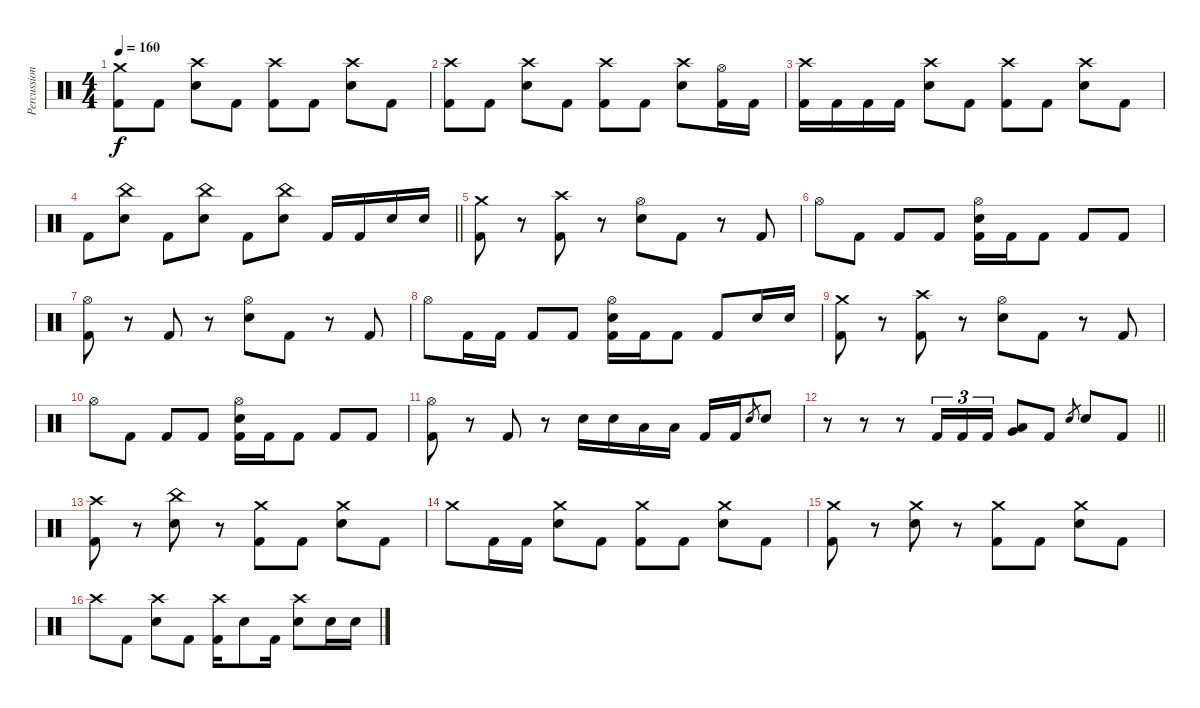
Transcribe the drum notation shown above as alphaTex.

\track ("Percussion" "Percussion") {instrument percussion}
\staff {score}
\articulation defaults
\ts (4 4)
\tempo 160
\clef neutral
\ks c
("Crash medium (hit)" "Kick (hit) 2").8{dy f} "Kick (hit) 2".8 ("Crash high (hit)" "Snare (hit) 2").8 "Kick (hit) 2".8 ("Crash high (hit)" "Kick (hit) 2").8 "Kick (hit) 2".8 ("Crash high (hit)" "Snare (hit) 2").8 "Kick (hit) 2".8 |
("Crash high (hit)" "Kick (hit) 2").8 "Kick (hit) 2".8 ("Crash high (hit)" "Snare (hit) 2").8 "Kick (hit) 2".8 ("Crash high (hit)" "Kick (hit) 2").8 "Kick (hit) 2".8 ("Crash high (hit)" "Snare (hit) 2").8 ("Hi-Hat (open)" "Kick (hit) 2").16 "Kick (hit) 2".16 |
("Crash high (hit)" "Kick (hit) 2").16 "Kick (hit) 2".16 "Kick (hit) 2".16 "Kick (hit) 2".16 ("Crash high (hit)" "Snare (hit) 2").8 "Kick (hit) 2".8 ("Crash high (hit)" "Kick (hit) 2").8 "Kick (hit) 2".8 ("Crash high (hit)" "Snare (hit) 2").8 "Kick (hit) 2".8 |
\barLineRight lightlight "Kick (hit) 2".8
("China (hit)" "Snare (hit) 2").8 "Kick (hit) 2".8 ("China (hit)" "Snare (hit) 2").8 "Kick (hit) 2".8 ("China (hit)" "Snare (hit) 2").8 "Kick (hit) 2".16 "Kick (hit) 2".16 "Snare (hit) 2".16 "Snare (hit) 2".16 |
\section ("" "")
("Crash medium (hit)" "Kick (hit) 2").8 r.8 ("Crash high (hit)" "Kick (hit) 2").8 r.8 ("Hi-Hat (open)" "Snare (hit) 2").8 "Kick (hit) 2".8 r.8 "Kick (hit) 2".8 |
"Hi-Hat (open)".8 "Kick (hit) 2".8 "Kick (hit) 2".8 "Kick (hit) 2".8 ("Hi-Hat (open)" "Snare (hit) 2" "Kick (hit) 2").16 "Kick (hit) 2".16 "Kick (hit) 2".8 "Kick (hit) 2".8 "Kick (hit) 2".8 |
("Hi-Hat (open)" "Kick (hit) 2").8 r.8 "Kick (hit) 2".8 r.8 ("Hi-Hat (open)" "Snare (hit) 2").8 "Kick (hit) 2".8 r.8 "Kick (hit) 2".8 |
"Hi-Hat (open)".8 "Kick (hit) 2".16 "Kick (hit) 2".16 "Kick (hit) 2".8 "Kick (hit) 2".8 ("Hi-Hat (open)" "Snare (hit) 2" "Kick (hit) 2").16 "Kick (hit) 2".16 "Kick (hit) 2".8 "Kick (hit) 2".8 "Snare (hit) 2".16 "Snare (hit) 2".16 |
("Crash medium (hit)" "Kick (hit) 2").8 r.8 ("Crash high (hit)" "Kick (hit) 2").8 r.8 ("Hi-Hat (open)" "Snare (hit) 2").8 "Kick (hit) 2".8 r.8 "Kick (hit) 2".8 |
"Hi-Hat (open)".8 "Kick (hit) 2".8 "Kick (hit) 2".8 "Kick (hit) 2".8 ("Hi-Hat (open)" "Snare (hit) 2" "Kick (hit) 2").16 "Kick (hit) 2".16 "Kick (hit) 2".8 "Kick (hit) 2".8 "Kick (hit) 2".8 |
("Hi-Hat (open)" "Kick (hit) 2").8 r.8 "Kick (hit) 2".8 r.8 "Snare (hit) 2".16 "Snare (hit) 2".16 "Low Tom (hit)".16 "Low Tom (hit)".16 "Kick (hit) 2".16 "Kick (hit) 2".16 "Snare (hit) 2".8{gr} "Snare (hit) 2".8 |
\barLineRight lightlight
r.8 r.8 r.8 "Kick (hit) 2".16{tu (3 2)} "Kick (hit) 2".16{tu (3 2)} "Kick (hit) 2".16{tu (3 2)} ("Low Tom (hit)" "Very Low Tom (hit)").8 "Kick (hit) 2".8 "Snare (hit) 2".8{gr} "Snare (hit) 2".8 "Kick (hit) 2".8 |
\section ("" "")
("Crash high (hit)" "Kick (hit) 2").8 r.8 ("China (hit)" "Snare (hit) 2").8 r.8 ("Crash medium (hit)" "Kick (hit) 2").8 "Kick (hit) 2".8 ("Crash medium (hit)" "Snare (hit) 2").8 "Kick (hit) 2".8 |
"Crash medium (hit)".8 "Kick (hit) 2".16 "Kick (hit) 2".16 ("Crash medium (hit)" "Snare (hit) 2").8 "Kick (hit) 2".8 ("Crash medium (hit)" "Kick (hit) 2").8 "Kick (hit) 2".8 ("Crash medium (hit)" "Snare (hit) 2").8 "Kick (hit) 2".8 |
("Crash medium (hit)" "Kick (hit) 2").8 r.8 ("Crash medium (hit)" "Snare (hit) 2").8 r.8 ("Crash medium (hit)" "Kick (hit) 2").8 "Kick (hit) 2".8 ("Crash medium (hit)" "Snare (hit) 2").8 "Kick (hit) 2".8 |
"Crash high (hit)".8 "Kick (hit) 2".8 ("Crash high (hit)" "Snare (hit) 2").8 "Kick (hit) 2".8 ("Crash high (hit)" "Kick (hit) 2").16 "Snare (hit) 2".8 "Kick (hit) 2".16 ("Crash high (hit)" "Snare (hit) 2").8 "Snare (hit) 2".16 "Snare (hit) 2".16
